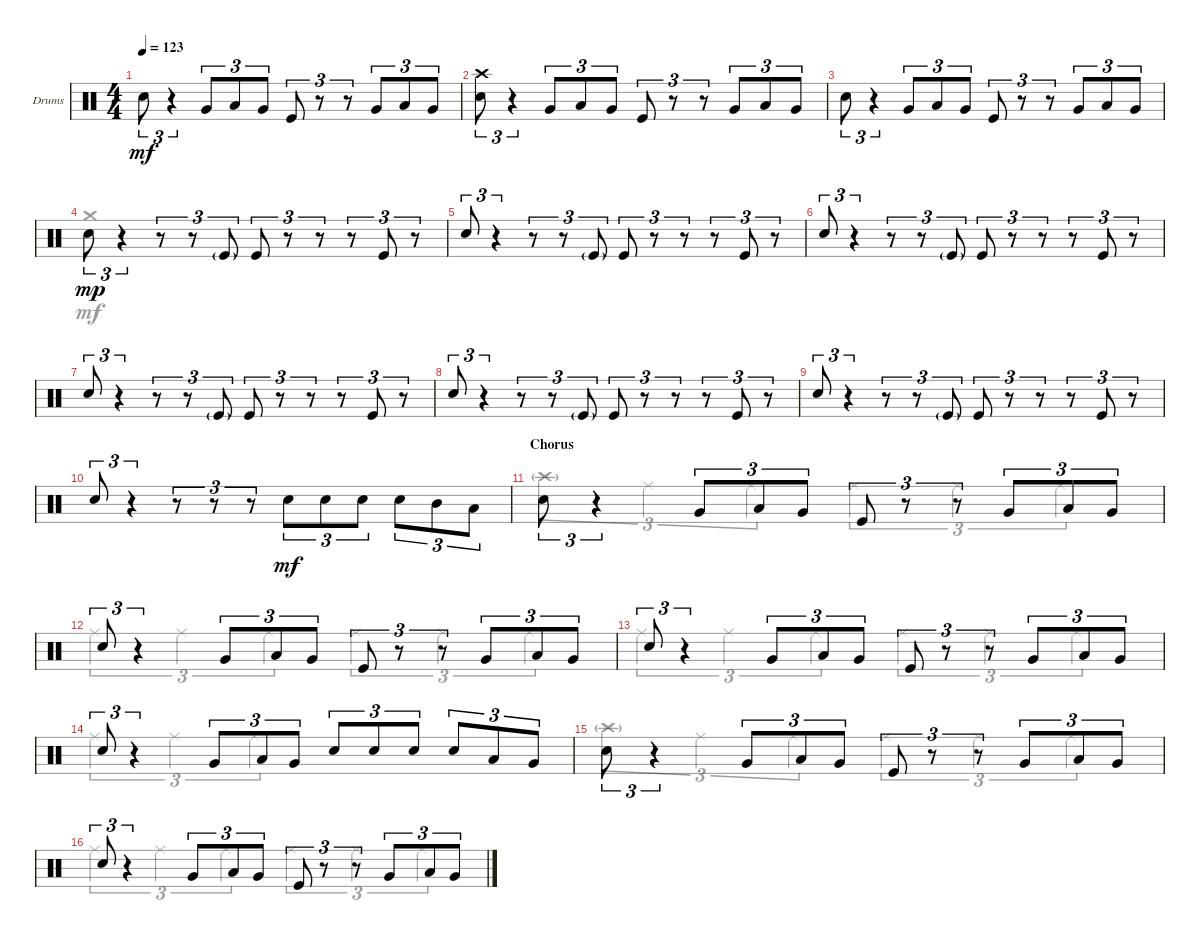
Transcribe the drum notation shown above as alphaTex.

\defaultSystemsLayout 4
\bracketExtendMode groupsimilarinstruments
\firstSystemTrackNameOrientation horizontal
\otherSystemsTrackNameOrientation horizontal
\track ("Drumkit" "Drums") {multiBarRest instrument percussion}
\staff {score}
\articulation defaults
\voice
\ts (4 4)
\tempo 123
\clef neutral
\ks c "Snare (hit) 2".8{tu (3 2) dy mf}
r.4{tu (3 2)} "Very Low Tom (hit)".8{tu (3 2)} "Low Tom (hit)".8{tu (3 2)} "Very Low Tom (hit)".8{tu (3 2)} "Kick (hit)".8{tu (3 2)} r.8{tu (3 2)} r.8{tu (3 2)} "Very Low Tom (hit)".8{tu (3 2)} "Low Tom (hit)".8{tu (3 2)} "Very Low Tom (hit)".8{tu (3 2)} |
("Snare (hit) 2" "Crash high (hit)").8{tu (3 2)} r.4{tu (3 2)} "Very Low Tom (hit)".8{tu (3 2)} "Low Tom (hit)".8{tu (3 2)} "Very Low Tom (hit)".8{tu (3 2)} "Kick (hit)".8{tu (3 2)} r.8{tu (3 2)} r.8{tu (3 2)} "Very Low Tom (hit)".8{tu (3 2)} "Low Tom (hit)".8{tu (3 2)} "Very Low Tom (hit)".8{tu (3 2)} |
"Snare (hit) 2".8{tu (3 2)} r.4{tu (3 2)} "Very Low Tom (hit)".8{tu (3 2)} "Low Tom (hit)".8{tu (3 2)} "Very Low Tom (hit)".8{tu (3 2)} "Kick (hit)".8{tu (3 2)} r.8{tu (3 2)} r.8{tu (3 2)} "Very Low Tom (hit)".8{tu (3 2)} "Low Tom (hit)".8{tu (3 2)} "Very Low Tom (hit)".8{tu (3 2)} |
"Snare (hit) 2".8{tu (3 2) dy mp beam invert} r.4{tu (3 2)} r.8{tu (3 2)} r.8{tu (3 2)} "Kick (hit)"{g}.8{tu (3 2)} "Kick (hit)".8{tu (3 2)} r.8{tu (3 2)} r.8{tu (3 2)} r.8{tu (3 2)} "Kick (hit)".8{tu (3 2)} r.8{tu (3 2)} |
"Snare (hit) 2".8{tu (3 2) beam invert} r.4{tu (3 2)} r.8{tu (3 2)} r.8{tu (3 2)} "Kick (hit)"{g}.8{tu (3 2)} "Kick (hit)".8{tu (3 2)} r.8{tu (3 2)} r.8{tu (3 2)} r.8{tu (3 2)} "Kick (hit)".8{tu (3 2)} r.8{tu (3 2)} |
"Snare (hit) 2".8{tu (3 2) beam invert} r.4{tu (3 2)} r.8{tu (3 2)} r.8{tu (3 2)} "Kick (hit)"{g}.8{tu (3 2)} "Kick (hit)".8{tu (3 2)} r.8{tu (3 2)} r.8{tu (3 2)} r.8{tu (3 2)} "Kick (hit)".8{tu (3 2)} r.8{tu (3 2)} |
"Snare (hit) 2".8{tu (3 2) beam invert} r.4{tu (3 2)} r.8{tu (3 2)} r.8{tu (3 2)} "Kick (hit)"{g}.8{tu (3 2)} "Kick (hit)".8{tu (3 2)} r.8{tu (3 2)} r.8{tu (3 2)} r.8{tu (3 2)} "Kick (hit)".8{tu (3 2)} r.8{tu (3 2)} |
"Snare (hit) 2".8{tu (3 2) beam invert} r.4{tu (3 2)} r.8{tu (3 2)} r.8{tu (3 2)} "Kick (hit)"{g}.8{tu (3 2)} "Kick (hit)".8{tu (3 2)} r.8{tu (3 2)} r.8{tu (3 2)} r.8{tu (3 2)} "Kick (hit)".8{tu (3 2)} r.8{tu (3 2)} |
"Snare (hit) 2".8{tu (3 2) beam invert} r.4{tu (3 2)} r.8{tu (3 2)} r.8{tu (3 2)} "Kick (hit)"{g}.8{tu (3 2)} "Kick (hit)".8{tu (3 2)} r.8{tu (3 2)} r.8{tu (3 2)} r.8{tu (3 2)} "Kick (hit)".8{tu (3 2)} r.8{tu (3 2)} |
"Snare (hit) 2".8{tu (3 2) beam invert} r.4{tu (3 2)} r.8{tu (3 2)} r.8{tu (3 2)} r.8{tu (3 2)} "Snare (hit) 2".8{tu (3 2) dy mf} "Snare (hit) 2".8{tu (3 2)} "Snare (hit) 2".8{tu (3 2)} "Snare (hit) 2".8{tu (3 2)} "Mid Tom (hit)".8{tu (3 2)} "Low Tom (hit)".8{tu (3 2)} |
\section ("" "Chorus")
"Snare (hit) 2".8{tu (3 2) beam invert} r.4{tu (3 2)} "Very Low Tom (hit)".8{tu (3 2)} "Low Tom (hit)".8{tu (3 2)} "Very Low Tom (hit)".8{tu (3 2)} "Kick (hit)".8{tu (3 2)} r.8{tu (3 2)} r.8{tu (3 2)} "Very Low Tom (hit)".8{tu (3 2)} "Low Tom (hit)".8{tu (3 2)} "Very Low Tom (hit)".8{tu (3 2)} |
"Snare (hit) 2".8{tu (3 2)} r.4{tu (3 2)} "Very Low Tom (hit)".8{tu (3 2)} "Low Tom (hit)".8{tu (3 2)} "Very Low Tom (hit)".8{tu (3 2)} "Kick (hit)".8{tu (3 2)} r.8{tu (3 2)} r.8{tu (3 2)} "Very Low Tom (hit)".8{tu (3 2)} "Low Tom (hit)".8{tu (3 2)} "Very Low Tom (hit)".8{tu (3 2)} |
"Snare (hit) 2".8{tu (3 2)} r.4{tu (3 2)} "Very Low Tom (hit)".8{tu (3 2)} "Low Tom (hit)".8{tu (3 2)} "Very Low Tom (hit)".8{tu (3 2)} "Kick (hit)".8{tu (3 2)} r.8{tu (3 2)} r.8{tu (3 2)} "Very Low Tom (hit)".8{tu (3 2)} "Low Tom (hit)".8{tu (3 2)} "Very Low Tom (hit)".8{tu (3 2)} |
"Snare (hit) 2".8{tu (3 2)} r.4{tu (3 2)} "Very Low Tom (hit)".8{tu (3 2)} "Low Tom (hit)".8{tu (3 2)} "Very Low Tom (hit)".8{tu (3 2)} "Snare (hit) 2".8{tu (3 2)} "Snare (hit) 2".8{tu (3 2)} "Snare (hit) 2".8{tu (3 2)} "Snare (hit) 2".8{tu (3 2)} "Low Tom (hit)".8{tu (3 2)} "Very Low Tom (hit)".8{tu (3 2)} |
"Snare (hit) 2".8{tu (3 2) beam invert} r.4{tu (3 2)} "Very Low Tom (hit)".8{tu (3 2)} "Low Tom (hit)".8{tu (3 2)} "Very Low Tom (hit)".8{tu (3 2)} "Kick (hit)".8{tu (3 2)} r.8{tu (3 2)} r.8{tu (3 2)} "Very Low Tom (hit)".8{tu (3 2)} "Low Tom (hit)".8{tu (3 2)} "Very Low Tom (hit)".8{tu (3 2)} |
"Snare (hit) 2".8{tu (3 2)} r.4{tu (3 2)} "Very Low Tom (hit)".8{tu (3 2)} "Low Tom (hit)".8{tu (3 2)} "Very Low Tom (hit)".8{tu (3 2)} "Kick (hit)".8{tu (3 2)} r.8{tu (3 2)} r.8{tu (3 2)} "Very Low Tom (hit)".8{tu (3 2)} "Low Tom (hit)".8{tu (3 2)} "Very Low Tom (hit)".8{tu (3 2)}
\voice
\clef neutral
\ottava regular
\simile none
\ks c
|
|
|
"Crash medium (hit)".1 |
|
|
|
|
|
|
"Crash high (hit)"{g}.4{tu (3 2)} "Ride (middle)".4{tu (3 2)} "Ride (middle)".4{tu (3 2)} "Ride (middle)".4{tu (3 2)} "Ride (middle)".4{tu (3 2)} "Ride (middle)".4{tu (3 2)} |
"Ride (middle)".4{tu (3 2)} "Ride (middle)".4{tu (3 2)} "Ride (middle)".4{tu (3 2)} "Ride (middle)".4{tu (3 2)} "Ride (middle)".4{tu (3 2)} "Ride (middle)".4{tu (3 2)} |
"Ride (middle)".4{tu (3 2)} "Ride (middle)".4{tu (3 2)} "Ride (middle)".4{tu (3 2)} "Ride (middle)".4{tu (3 2)} "Ride (middle)".4{tu (3 2)} "Ride (middle)".4{tu (3 2)} |
"Ride (middle)".4{tu (3 2)} "Ride (middle)".4{tu (3 2)} "Ride (middle)".4{tu (3 2)} |
"Crash high (hit)"{g}.4{tu (3 2)} "Ride (middle)".4{tu (3 2)} "Ride (middle)".4{tu (3 2)} "Ride (middle)".4{tu (3 2)} "Ride (middle)".4{tu (3 2)} "Ride (middle)".4{tu (3 2)} |
"Ride (middle)".4{tu (3 2)} "Ride (middle)".4{tu (3 2)} "Ride (middle)".4{tu (3 2)} "Ride (middle)".4{tu (3 2)} "Ride (middle)".4{tu (3 2)} "Ride (middle)".4{tu (3 2)}
